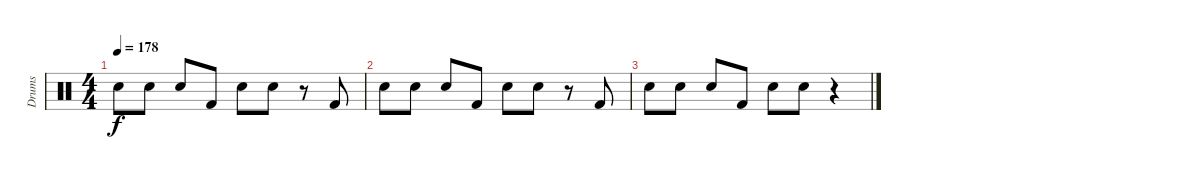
\track ("Drums" "Drums") {instrument percussion}
\staff {score}
\articulation defaults
\ts (4 4)
\tempo 178
\clef neutral
\ks c "Snare (hit) 2".8{dy f} "Snare (hit) 2".8 "Snare (hit) 2".8 "Kick (hit) 2".8 "Snare (hit) 2".8 "Snare (hit) 2".8
r.8 "Kick (hit) 2".8 |
"Snare (hit) 2".8 "Snare (hit) 2".8 "Snare (hit) 2".8 "Kick (hit) 2".8 "Snare (hit) 2".8 "Snare (hit) 2".8 r.8 "Kick (hit) 2".8 |
"Snare (hit) 2".8 "Snare (hit) 2".8 "Snare (hit) 2".8 "Kick (hit) 2".8 "Snare (hit) 2".8 "Snare (hit) 2".8 r.4
